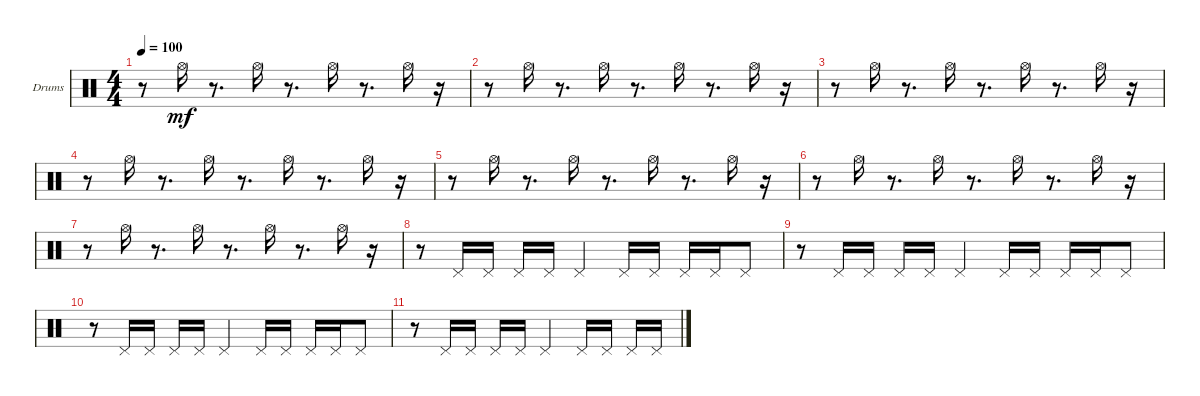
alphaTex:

\bracketExtendMode groupsimilarinstruments
\firstSystemTrackNameOrientation horizontal
\otherSystemsTrackNameOrientation horizontal
\track ("Treble Percussion" "Drums") {instrument percussion}
\staff {score}
\articulation defaults
\ts (4 4)
\tempo 100
\clef neutral
\ks c
r.8{dy mf} "Hi-Hat (open)".16 r.8{d} "Hi-Hat (open)".16 r.8{d} "Hi-Hat (open)".16 r.8{d} "Hi-Hat (open)".16 r.16 |
r.8 "Hi-Hat (open)".16 r.8{d} "Hi-Hat (open)".16 r.8{d} "Hi-Hat (open)".16 r.8{d} "Hi-Hat (open)".16 r.16 |
r.8 "Hi-Hat (open)".16 r.8{d} "Hi-Hat (open)".16 r.8{d} "Hi-Hat (open)".16 r.8{d} "Hi-Hat (open)".16 r.16 |
r.8 "Hi-Hat (open)".16 r.8{d} "Hi-Hat (open)".16 r.8{d} "Hi-Hat (open)".16 r.8{d} "Hi-Hat (open)".16 r.16 |
r.8 "Hi-Hat (open)".16 r.8{d} "Hi-Hat (open)".16 r.8{d} "Hi-Hat (open)".16 r.8{d} "Hi-Hat (open)".16 r.16 |
r.8 "Hi-Hat (open)".16 r.8{d} "Hi-Hat (open)".16 r.8{d} "Hi-Hat (open)".16 r.8{d} "Hi-Hat (open)".16 r.16 |
r.8 "Hi-Hat (open)".16 r.8{d} "Hi-Hat (open)".16 r.8{d} "Hi-Hat (open)".16 r.8{d} "Hi-Hat (open)".16 r.16 |
r.8 "Pedal Hi-Hat (hit)".16 "Pedal Hi-Hat (hit)".16 "Pedal Hi-Hat (hit)".16 "Pedal Hi-Hat (hit)".16 "Pedal Hi-Hat (hit)".4 "Pedal Hi-Hat (hit)".16 "Pedal Hi-Hat (hit)".16 "Pedal Hi-Hat (hit)".16 "Pedal Hi-Hat (hit)".16 "Pedal Hi-Hat (hit)".8 |
r.8 "Pedal Hi-Hat (hit)".16 "Pedal Hi-Hat (hit)".16 "Pedal Hi-Hat (hit)".16 "Pedal Hi-Hat (hit)".16 "Pedal Hi-Hat (hit)".4 "Pedal Hi-Hat (hit)".16 "Pedal Hi-Hat (hit)".16 "Pedal Hi-Hat (hit)".16 "Pedal Hi-Hat (hit)".16 "Pedal Hi-Hat (hit)".8 |
r.8 "Pedal Hi-Hat (hit)".16 "Pedal Hi-Hat (hit)".16 "Pedal Hi-Hat (hit)".16 "Pedal Hi-Hat (hit)".16 "Pedal Hi-Hat (hit)".4 "Pedal Hi-Hat (hit)".16 "Pedal Hi-Hat (hit)".16 "Pedal Hi-Hat (hit)".16 "Pedal Hi-Hat (hit)".16 "Pedal Hi-Hat (hit)".8 |
r.8 "Pedal Hi-Hat (hit)".16 "Pedal Hi-Hat (hit)".16 "Pedal Hi-Hat (hit)".16 "Pedal Hi-Hat (hit)".16 "Pedal Hi-Hat (hit)".4 "Pedal Hi-Hat (hit)".16 "Pedal Hi-Hat (hit)".16 "Pedal Hi-Hat (hit)".16 "Pedal Hi-Hat (hit)".16
